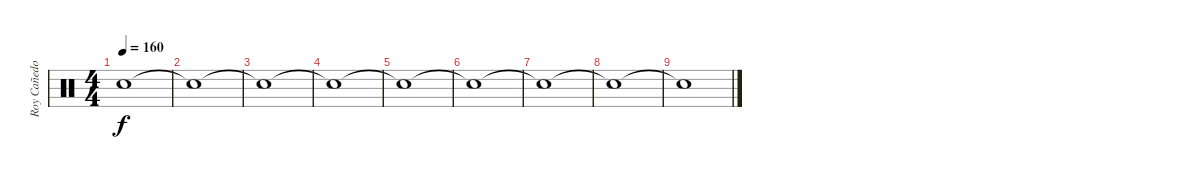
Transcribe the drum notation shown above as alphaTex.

\track ("Roy Cañedo" "Roy Cañedo") {instrument percussion}
\staff {score}
\articulation defaults
\ts (4 4)
\tempo 160
\clef neutral
\ks c "Snare (hit)"{t}.1{dy f}
|
"Snare (hit)"{t}.1 |
"Snare (hit)"{t}.1 |
"Snare (hit)"{t}.1 |
"Snare (hit)"{t}.1 |
"Snare (hit)"{t}.1 |
"Snare (hit)"{t}.1 |
"Snare (hit)"{t}.1 |
"Snare (hit)"{t}.1
